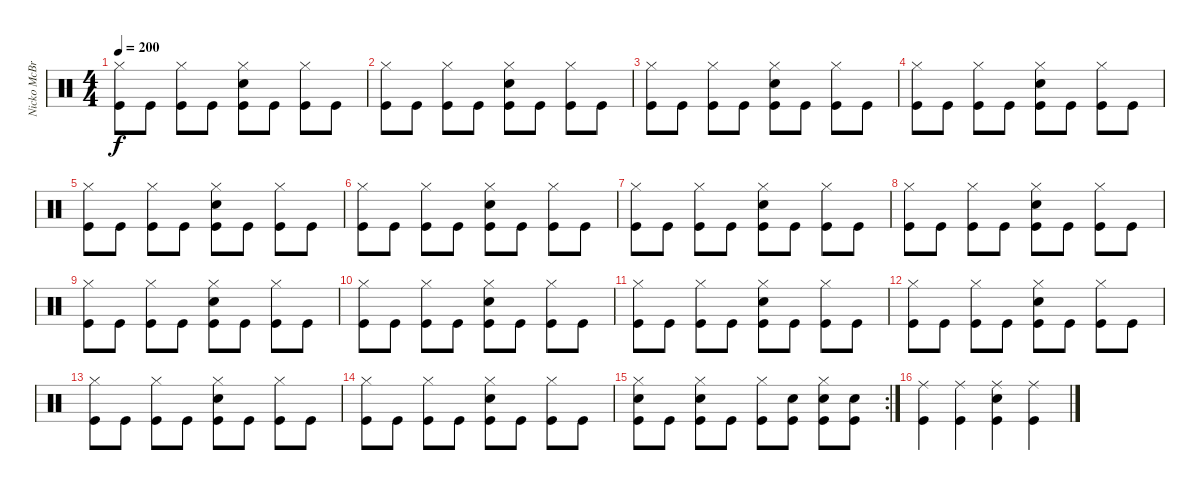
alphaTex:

\track ("Nicko McBrain" "Nicko McBr") {instrument percussion}
\staff {score}
\articulation defaults
\ts (4 4)
\tempo 200
\clef neutral
\ks c
("Hi-Hat (closed)" "Kick (hit)").8{dy f} "Kick (hit)".8 ("Hi-Hat (closed)" "Kick (hit)").8 "Kick (hit)".8 ("Hi-Hat (closed)" "Electric Snare (hit)" "Kick (hit)").8 "Kick (hit)".8 ("Hi-Hat (closed)" "Kick (hit)").8 "Kick (hit)".8 |
("Hi-Hat (closed)" "Kick (hit)").8 "Kick (hit)".8 ("Hi-Hat (closed)" "Kick (hit)").8 "Kick (hit)".8 ("Hi-Hat (closed)" "Electric Snare (hit)" "Kick (hit)").8 "Kick (hit)".8 ("Hi-Hat (closed)" "Kick (hit)").8 "Kick (hit)".8 |
("Hi-Hat (closed)" "Kick (hit)").8 "Kick (hit)".8 ("Hi-Hat (closed)" "Kick (hit)").8 "Kick (hit)".8 ("Hi-Hat (closed)" "Electric Snare (hit)" "Kick (hit)").8 "Kick (hit)".8 ("Hi-Hat (closed)" "Kick (hit)").8 "Kick (hit)".8 |
("Hi-Hat (closed)" "Kick (hit)").8 "Kick (hit)".8 ("Hi-Hat (closed)" "Kick (hit)").8 "Kick (hit)".8 ("Hi-Hat (closed)" "Electric Snare (hit)" "Kick (hit)").8 "Kick (hit)".8 ("Hi-Hat (closed)" "Kick (hit)").8 "Kick (hit)".8 |
("Hi-Hat (closed)" "Kick (hit)").8 "Kick (hit)".8 ("Hi-Hat (closed)" "Kick (hit)").8 "Kick (hit)".8 ("Hi-Hat (closed)" "Electric Snare (hit)" "Kick (hit)").8 "Kick (hit)".8 ("Hi-Hat (closed)" "Kick (hit)").8 "Kick (hit)".8 |
("Hi-Hat (closed)" "Kick (hit)").8 "Kick (hit)".8 ("Hi-Hat (closed)" "Kick (hit)").8 "Kick (hit)".8 ("Hi-Hat (closed)" "Electric Snare (hit)" "Kick (hit)").8 "Kick (hit)".8 ("Hi-Hat (closed)" "Kick (hit)").8 "Kick (hit)".8 |
("Hi-Hat (closed)" "Kick (hit)").8 "Kick (hit)".8 ("Hi-Hat (closed)" "Kick (hit)").8 "Kick (hit)".8 ("Hi-Hat (closed)" "Electric Snare (hit)" "Kick (hit)").8 "Kick (hit)".8 ("Hi-Hat (closed)" "Kick (hit)").8 "Kick (hit)".8 |
("Hi-Hat (closed)" "Kick (hit)").8 "Kick (hit)".8 ("Hi-Hat (closed)" "Kick (hit)").8 "Kick (hit)".8 ("Hi-Hat (closed)" "Electric Snare (hit)" "Kick (hit)").8 "Kick (hit)".8 ("Hi-Hat (closed)" "Kick (hit)").8 "Kick (hit)".8 |
("Hi-Hat (closed)" "Kick (hit)").8 "Kick (hit)".8 ("Hi-Hat (closed)" "Kick (hit)").8 "Kick (hit)".8 ("Hi-Hat (closed)" "Electric Snare (hit)" "Kick (hit)").8 "Kick (hit)".8 ("Hi-Hat (closed)" "Kick (hit)").8 "Kick (hit)".8 |
("Hi-Hat (closed)" "Kick (hit)").8 "Kick (hit)".8 ("Hi-Hat (closed)" "Kick (hit)").8 "Kick (hit)".8 ("Hi-Hat (closed)" "Electric Snare (hit)" "Kick (hit)").8 "Kick (hit)".8 ("Hi-Hat (closed)" "Kick (hit)").8 "Kick (hit)".8 |
("Hi-Hat (closed)" "Kick (hit)").8 "Kick (hit)".8 ("Hi-Hat (closed)" "Kick (hit)").8 "Kick (hit)".8 ("Hi-Hat (closed)" "Electric Snare (hit)" "Kick (hit)").8 "Kick (hit)".8 ("Hi-Hat (closed)" "Kick (hit)").8 "Kick (hit)".8 |
("Hi-Hat (closed)" "Kick (hit)").8 "Kick (hit)".8 ("Hi-Hat (closed)" "Kick (hit)").8 "Kick (hit)".8 ("Hi-Hat (closed)" "Electric Snare (hit)" "Kick (hit)").8 "Kick (hit)".8 ("Hi-Hat (closed)" "Kick (hit)").8 "Kick (hit)".8 |
("Hi-Hat (closed)" "Kick (hit)").8 "Kick (hit)".8 ("Hi-Hat (closed)" "Kick (hit)").8 "Kick (hit)".8 ("Hi-Hat (closed)" "Electric Snare (hit)" "Kick (hit)").8 "Kick (hit)".8 ("Hi-Hat (closed)" "Kick (hit)").8 "Kick (hit)".8 |
("Hi-Hat (closed)" "Kick (hit)").8 "Kick (hit)".8 ("Hi-Hat (closed)" "Kick (hit)").8 "Kick (hit)".8 ("Hi-Hat (closed)" "Electric Snare (hit)" "Kick (hit)").8 "Kick (hit)".8 ("Hi-Hat (closed)" "Kick (hit)").8 "Kick (hit)".8 |
\rc 2
("Hi-Hat (closed)" "Electric Snare (hit)" "Kick (hit)").8 "Kick (hit)".8 ("Hi-Hat (closed)" "Electric Snare (hit)" "Kick (hit)").8 "Kick (hit)".8 ("Hi-Hat (closed)" "Kick (hit)").8 ("Electric Snare (hit)" "Kick (hit)").8 ("Hi-Hat (closed)" "Electric Snare (hit)" "Kick (hit)").8 ("Electric Snare (hit)" "Kick (hit)").8 |
("Ride (middle)" "Kick (hit)").4 ("Ride (middle)" "Kick (hit)").4 ("Ride (middle)" "Electric Snare (hit)" "Kick (hit)").4 ("Ride (middle)" "Kick (hit)").4
